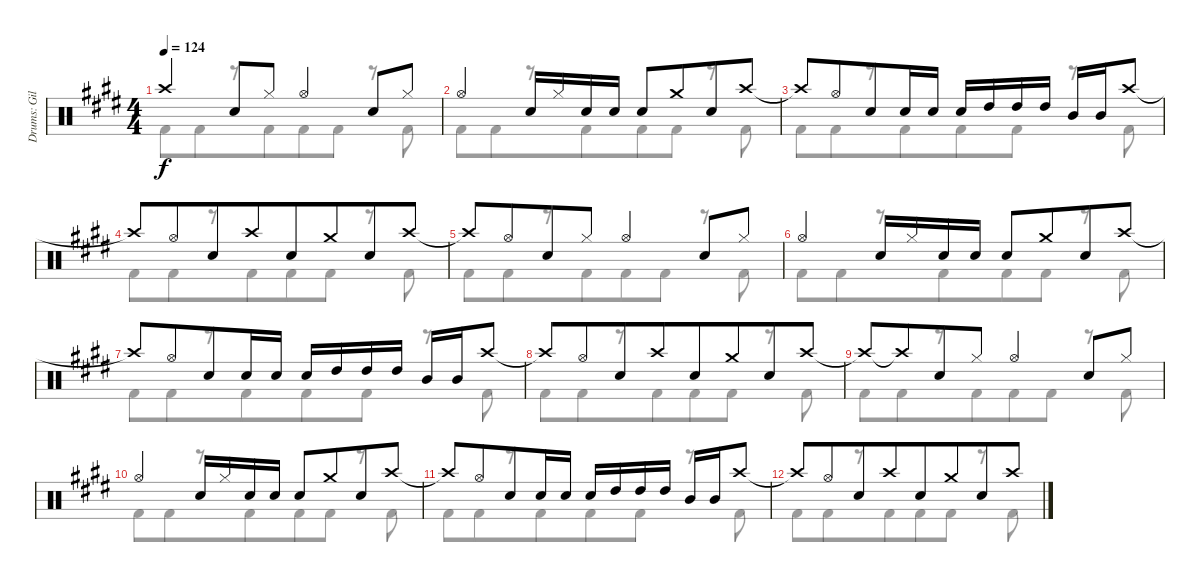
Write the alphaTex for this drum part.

\track ("Drums: Gil" "Drums: Gil") {instrument percussion}
\staff {score}
\articulation defaults
\voice
\ts (4 4)
\tempo 124
\clef neutral
\ks e "Crash high (hit)".4{dy f beam merge} "Snare (hit) 2".8 "Hi-Hat (closed)".8 "Hi-Hat (open)".4 "Snare (hit) 2".8 "Hi-Hat (closed)".8
|
"Hi-Hat (open)".4{beam merge} "Snare (hit) 2".16 "Hi-Hat (closed)".16 "Snare (hit) 2".16 "Snare (hit) 2".16 "Snare (hit) 2".8 "Crash medium (hit)".8{beam merge} "Electric Snare (hit)".8 "Crash high (hit)".8 |
"Crash high (hit)"{t}.8 "Hi-Hat (open)".8{beam merge} "Snare (hit) 2".8 "Snare (hit) 2".16 "Snare (hit) 2".16 "Snare (hit) 2".16 "High Tom (hit)".16 "High Tom (hit)".16 "High Tom (hit)".16 "Mid Tom (hit)".16 "Mid Tom (hit)".16 "Crash high (hit)".8 |
"Crash high (hit)"{t}.8 "Hi-Hat (open)".8{beam merge} "Snare (hit) 2".8 "Crash high (hit)".8{beam merge} "Snare (hit) 2".8 "Crash medium (hit)".8{beam merge} "Snare (hit) 2".8 "Crash high (hit)".8 |
"Crash high (hit)"{t}.8{volume 8} "Hi-Hat (open)".8{beam merge} "Snare (hit) 2".8 "Hi-Hat (closed)".8 "Hi-Hat (open)".4 "Snare (hit) 2".8 "Hi-Hat (closed)".8 |
"Hi-Hat (open)".4{beam merge} "Snare (hit) 2".16 "Hi-Hat (closed)".16 "Snare (hit) 2".16 "Snare (hit) 2".16 "Snare (hit) 2".8 "Crash medium (hit)".8{beam merge} "Electric Snare (hit)".8 "Crash high (hit)".8 |
"Crash high (hit)"{t}.8 "Hi-Hat (open)".8{beam merge} "Snare (hit) 2".8 "Snare (hit) 2".16 "Snare (hit) 2".16 "Snare (hit) 2".16 "High Tom (hit)".16 "High Tom (hit)".16 "High Tom (hit)".16 "Mid Tom (hit)".16 "Mid Tom (hit)".16 "Crash high (hit)".8 |
"Crash high (hit)"{t}.8 "Hi-Hat (open)".8{beam merge} "Snare (hit) 2".8 "Crash high (hit)".8{beam merge} "Snare (hit) 2".8 "Crash medium (hit)".8{beam merge} "Snare (hit) 2".8 "Crash high (hit)".8 |
"Crash high (hit)"{t}.8{volume 0} "Crash high (hit)"{t}.8{beam merge} "Snare (hit) 2".8 "Hi-Hat (closed)".8 "Hi-Hat (open)".4 "Snare (hit) 2".8 "Hi-Hat (closed)".8 |
"Hi-Hat (open)".4{beam merge} "Snare (hit) 2".16 "Hi-Hat (closed)".16 "Snare (hit) 2".16 "Snare (hit) 2".16 "Snare (hit) 2".8 "Crash medium (hit)".8{beam merge} "Electric Snare (hit)".8 "Crash high (hit)".8 |
"Crash high (hit)"{t}.8 "Hi-Hat (open)".8{beam merge} "Snare (hit) 2".8 "Snare (hit) 2".16 "Snare (hit) 2".16 "Snare (hit) 2".16 "High Tom (hit)".16 "High Tom (hit)".16 "High Tom (hit)".16 "Mid Tom (hit)".16 "Mid Tom (hit)".16 "Crash high (hit)".8 |
"Crash high (hit)"{t}.8 "Hi-Hat (open)".8{beam merge} "Snare (hit) 2".8 "Crash high (hit)".8{beam merge} "Snare (hit) 2".8 "Crash medium (hit)".8{beam merge} "Snare (hit) 2".8 "Crash high (hit)".8
\voice
\clef neutral
\ottava regular
\simile none
\ks e "Kick (hit) 2".8{dy f} "Kick (hit) 2".8{beam merge}
r.8{beam merge} "Kick (hit) 2".8{beam merge} "Kick (hit) 2".8 "Kick (hit) 2".8 r.8 "Kick (hit) 2".8 |
"Kick (hit) 2".8 "Kick (hit) 2".8{beam merge} r.8{beam merge} "Kick (hit) 2".8{beam merge} "Kick (hit) 2".8 "Kick (hit) 2".8 r.8 "Kick (hit) 2".8 |
"Kick (hit) 2".8 "Kick (hit) 2".8{beam merge} r.8{beam merge} "Kick (hit) 2".8{beam merge} "Kick (hit) 2".8 "Kick (hit) 2".8 r.8 "Kick (hit) 2".8 |
"Kick (hit) 2".8 "Kick (hit) 2".8{beam merge} r.8{beam merge} "Kick (hit) 2".8{beam merge} "Kick (hit) 2".8 "Kick (hit) 2".8 r.8 "Kick (hit) 2".8 |
"Kick (hit) 2".8 "Kick (hit) 2".8{beam merge} r.8{beam merge} "Kick (hit) 2".8{beam merge} "Kick (hit) 2".8 "Kick (hit) 2".8 r.8 "Kick (hit) 2".8 |
"Kick (hit) 2".8 "Kick (hit) 2".8{beam merge} r.8{beam merge} "Kick (hit) 2".8{beam merge} "Kick (hit) 2".8 "Kick (hit) 2".8 r.8 "Kick (hit) 2".8 |
"Kick (hit) 2".8 "Kick (hit) 2".8{beam merge} r.8{beam merge} "Kick (hit) 2".8{beam merge} "Kick (hit) 2".8 "Kick (hit) 2".8 r.8 "Kick (hit) 2".8 |
"Kick (hit) 2".8 "Kick (hit) 2".8{beam merge} r.8{beam merge} "Kick (hit) 2".8{beam merge} "Kick (hit) 2".8 "Kick (hit) 2".8 r.8 "Kick (hit) 2".8 |
"Kick (hit) 2".8 "Kick (hit) 2".8{beam merge} r.8{beam merge} "Kick (hit) 2".8{beam merge} "Kick (hit) 2".8 "Kick (hit) 2".8 r.8 "Kick (hit) 2".8 |
"Kick (hit) 2".8 "Kick (hit) 2".8{beam merge} r.8{beam merge} "Kick (hit) 2".8{beam merge} "Kick (hit) 2".8 "Kick (hit) 2".8 r.8 "Kick (hit) 2".8 |
"Kick (hit) 2".8 "Kick (hit) 2".8{beam merge} r.8{beam merge} "Kick (hit) 2".8{beam merge} "Kick (hit) 2".8 "Kick (hit) 2".8 r.8 "Kick (hit) 2".8 |
"Kick (hit) 2".8 "Kick (hit) 2".8{beam merge} r.8{beam merge} "Kick (hit) 2".8{beam merge} "Kick (hit) 2".8 "Kick (hit) 2".8 r.8 "Kick (hit) 2".8
